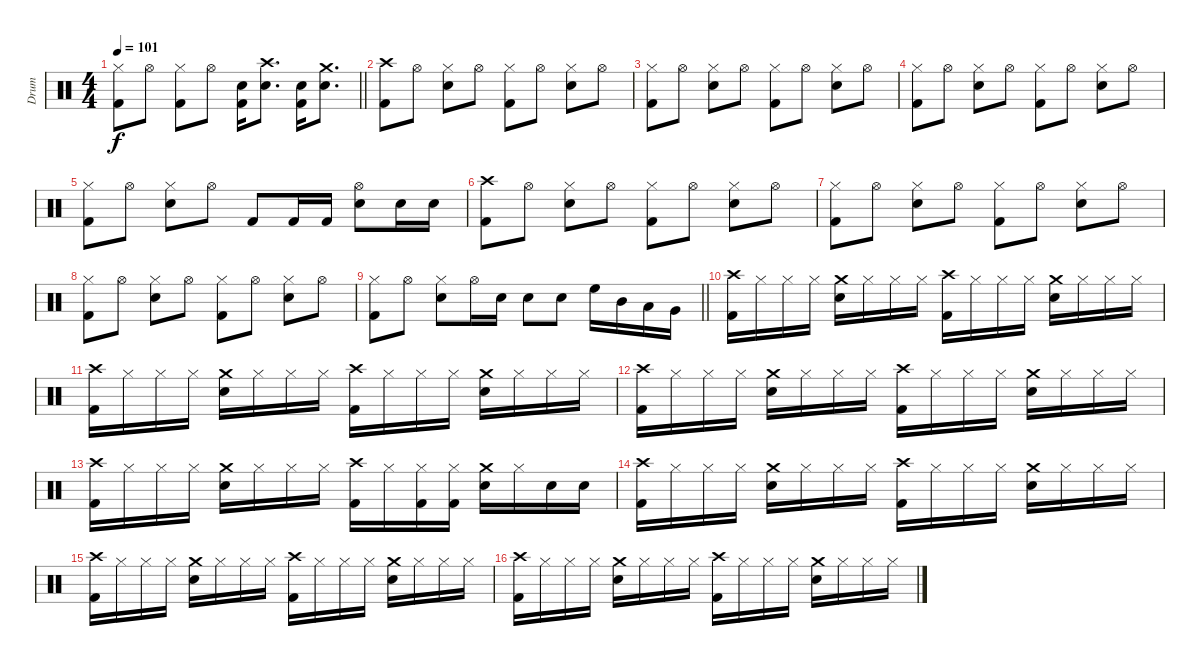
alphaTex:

\track ("Drum" "Drum") {instrument percussion}
\staff {score}
\articulation defaults
\ts (4 4)
\tempo 101
\clef neutral
\barLineRight lightlight
\ks c
("Hi-Hat (closed)" "Kick (hit) 2").8{dy f} "Hi-Hat (open)".8 ("Hi-Hat (closed)" "Kick (hit) 2").8 "Hi-Hat (open)".8 ("Snare (hit) 2" "Kick (hit) 2").16{volume 13} ("Crash high (hit)" "Snare (hit) 2").8{d} ("Snare (hit) 2" "Kick (hit) 2").16 ("Crash medium (hit)" "Snare (hit) 2").8{d} |
("Crash high (hit)" "Kick (hit) 2").8 "Hi-Hat (open)".8 ("Hi-Hat (closed)" "Snare (hit) 2").8 "Hi-Hat (open)".8 ("Hi-Hat (closed)" "Kick (hit) 2").8 "Hi-Hat (open)".8 ("Hi-Hat (closed)" "Snare (hit) 2").8 "Hi-Hat (open)".8 |
("Hi-Hat (closed)" "Kick (hit) 2").8 "Hi-Hat (open)".8 ("Hi-Hat (closed)" "Snare (hit) 2").8 "Hi-Hat (open)".8 ("Hi-Hat (closed)" "Kick (hit) 2").8 "Hi-Hat (open)".8 ("Hi-Hat (closed)" "Snare (hit) 2").8 "Hi-Hat (open)".8 |
("Hi-Hat (closed)" "Kick (hit) 2").8 "Hi-Hat (open)".8 ("Hi-Hat (closed)" "Snare (hit) 2").8 "Hi-Hat (open)".8 ("Hi-Hat (closed)" "Kick (hit) 2").8 "Hi-Hat (open)".8 ("Hi-Hat (closed)" "Snare (hit) 2").8 "Hi-Hat (open)".8 |
("Hi-Hat (closed)" "Kick (hit) 2").8 "Hi-Hat (open)".8 ("Hi-Hat (closed)" "Snare (hit) 2").8 "Hi-Hat (open)".8 "Kick (hit) 2".8 "Kick (hit) 2".16 "Kick (hit) 2".16 ("Hi-Hat (open)" "Snare (hit) 2").8 "Snare (hit) 2".16 "Snare (hit) 2".16 |
("Crash high (hit)" "Kick (hit) 2").8 "Hi-Hat (open)".8 ("Hi-Hat (closed)" "Snare (hit) 2").8 "Hi-Hat (open)".8 ("Hi-Hat (closed)" "Kick (hit) 2").8 "Hi-Hat (open)".8 ("Hi-Hat (closed)" "Snare (hit) 2").8 "Hi-Hat (open)".8 |
("Hi-Hat (closed)" "Kick (hit) 2").8 "Hi-Hat (open)".8 ("Hi-Hat (closed)" "Snare (hit) 2").8 "Hi-Hat (open)".8 ("Hi-Hat (closed)" "Kick (hit) 2").8 "Hi-Hat (open)".8 ("Hi-Hat (closed)" "Snare (hit) 2").8 "Hi-Hat (open)".8 |
("Hi-Hat (closed)" "Kick (hit) 2").8 "Hi-Hat (open)".8 ("Hi-Hat (closed)" "Snare (hit) 2").8 "Hi-Hat (open)".8 ("Hi-Hat (closed)" "Kick (hit) 2").8 "Hi-Hat (open)".8 ("Hi-Hat (closed)" "Snare (hit) 2").8 "Hi-Hat (open)".8 |
\barLineRight lightlight
("Hi-Hat (closed)" "Kick (hit) 2").8 "Hi-Hat (open)".8 ("Hi-Hat (closed)" "Snare (hit) 2").8 "Hi-Hat (open)".16 "Snare (hit) 2".16 "Snare (hit) 2".8 "Snare (hit) 2".8 "High Floor Tom (hit)".16 "Mid Tom (hit)".16 "Low Tom (hit)".16 "Very Low Tom (hit)".16 |
("Crash high (hit)" "Kick (hit) 2").16 "Hi-Hat (closed)".16 "Hi-Hat (closed)".16 "Hi-Hat (closed)".16 ("Crash medium (hit)" "Snare (hit) 2").16 "Hi-Hat (closed)".16 "Hi-Hat (closed)".16 "Hi-Hat (closed)".16 ("Crash high (hit)" "Kick (hit) 2").16 "Hi-Hat (closed)".16 "Hi-Hat (closed)".16 "Hi-Hat (closed)".16 ("Crash medium (hit)" "Snare (hit) 2").16 "Hi-Hat (closed)".16 "Hi-Hat (closed)".16 "Hi-Hat (closed)".16 |
("Crash high (hit)" "Kick (hit) 2").16 "Hi-Hat (closed)".16 "Hi-Hat (closed)".16 "Hi-Hat (closed)".16 ("Crash medium (hit)" "Snare (hit) 2").16 "Hi-Hat (closed)".16 "Hi-Hat (closed)".16 "Hi-Hat (closed)".16 ("Crash high (hit)" "Kick (hit) 2").16 "Hi-Hat (closed)".16 "Hi-Hat (closed)".16 "Hi-Hat (closed)".16 ("Crash medium (hit)" "Snare (hit) 2").16 "Hi-Hat (closed)".16 "Hi-Hat (closed)".16 "Hi-Hat (closed)".16 |
("Crash high (hit)" "Kick (hit) 2").16 "Hi-Hat (closed)".16 "Hi-Hat (closed)".16 "Hi-Hat (closed)".16 ("Crash medium (hit)" "Snare (hit) 2").16 "Hi-Hat (closed)".16 "Hi-Hat (closed)".16 "Hi-Hat (closed)".16 ("Crash high (hit)" "Kick (hit) 2").16 "Hi-Hat (closed)".16 "Hi-Hat (closed)".16 "Hi-Hat (closed)".16 ("Crash medium (hit)" "Snare (hit) 2").16 "Hi-Hat (closed)".16 "Hi-Hat (closed)".16 "Hi-Hat (closed)".16 |
("Crash high (hit)" "Kick (hit) 2").16 "Hi-Hat (closed)".16 "Hi-Hat (closed)".16 "Hi-Hat (closed)".16 ("Crash medium (hit)" "Snare (hit) 2").16 "Hi-Hat (closed)".16 "Hi-Hat (closed)".16 "Hi-Hat (closed)".16 ("Crash high (hit)" "Kick (hit) 2").16 "Hi-Hat (closed)".16 ("Hi-Hat (closed)" "Kick (hit) 2").16 ("Hi-Hat (closed)" "Kick (hit) 2").16 ("Crash medium (hit)" "Snare (hit) 2").16 "Hi-Hat (closed)".16 "Snare (hit) 2".16 "Snare (hit) 2".16 |
("Crash high (hit)" "Kick (hit) 2").16 "Hi-Hat (closed)".16 "Hi-Hat (closed)".16 "Hi-Hat (closed)".16 ("Crash medium (hit)" "Snare (hit) 2").16 "Hi-Hat (closed)".16 "Hi-Hat (closed)".16 "Hi-Hat (closed)".16 ("Crash high (hit)" "Kick (hit) 2").16 "Hi-Hat (closed)".16 "Hi-Hat (closed)".16 "Hi-Hat (closed)".16 ("Crash medium (hit)" "Snare (hit) 2").16 "Hi-Hat (closed)".16 "Hi-Hat (closed)".16 "Hi-Hat (closed)".16 |
("Crash high (hit)" "Kick (hit) 2").16 "Hi-Hat (closed)".16 "Hi-Hat (closed)".16 "Hi-Hat (closed)".16 ("Crash medium (hit)" "Snare (hit) 2").16 "Hi-Hat (closed)".16 "Hi-Hat (closed)".16 "Hi-Hat (closed)".16 ("Crash high (hit)" "Kick (hit) 2").16 "Hi-Hat (closed)".16 "Hi-Hat (closed)".16 "Hi-Hat (closed)".16 ("Crash medium (hit)" "Snare (hit) 2").16 "Hi-Hat (closed)".16 "Hi-Hat (closed)".16 "Hi-Hat (closed)".16 |
("Crash high (hit)" "Kick (hit) 2").16 "Hi-Hat (closed)".16 "Hi-Hat (closed)".16 "Hi-Hat (closed)".16 ("Crash medium (hit)" "Snare (hit) 2").16 "Hi-Hat (closed)".16 "Hi-Hat (closed)".16 "Hi-Hat (closed)".16 ("Crash high (hit)" "Kick (hit) 2").16 "Hi-Hat (closed)".16 "Hi-Hat (closed)".16 "Hi-Hat (closed)".16 ("Crash medium (hit)" "Snare (hit) 2").16 "Hi-Hat (closed)".16 "Hi-Hat (closed)".16 "Hi-Hat (closed)".16
